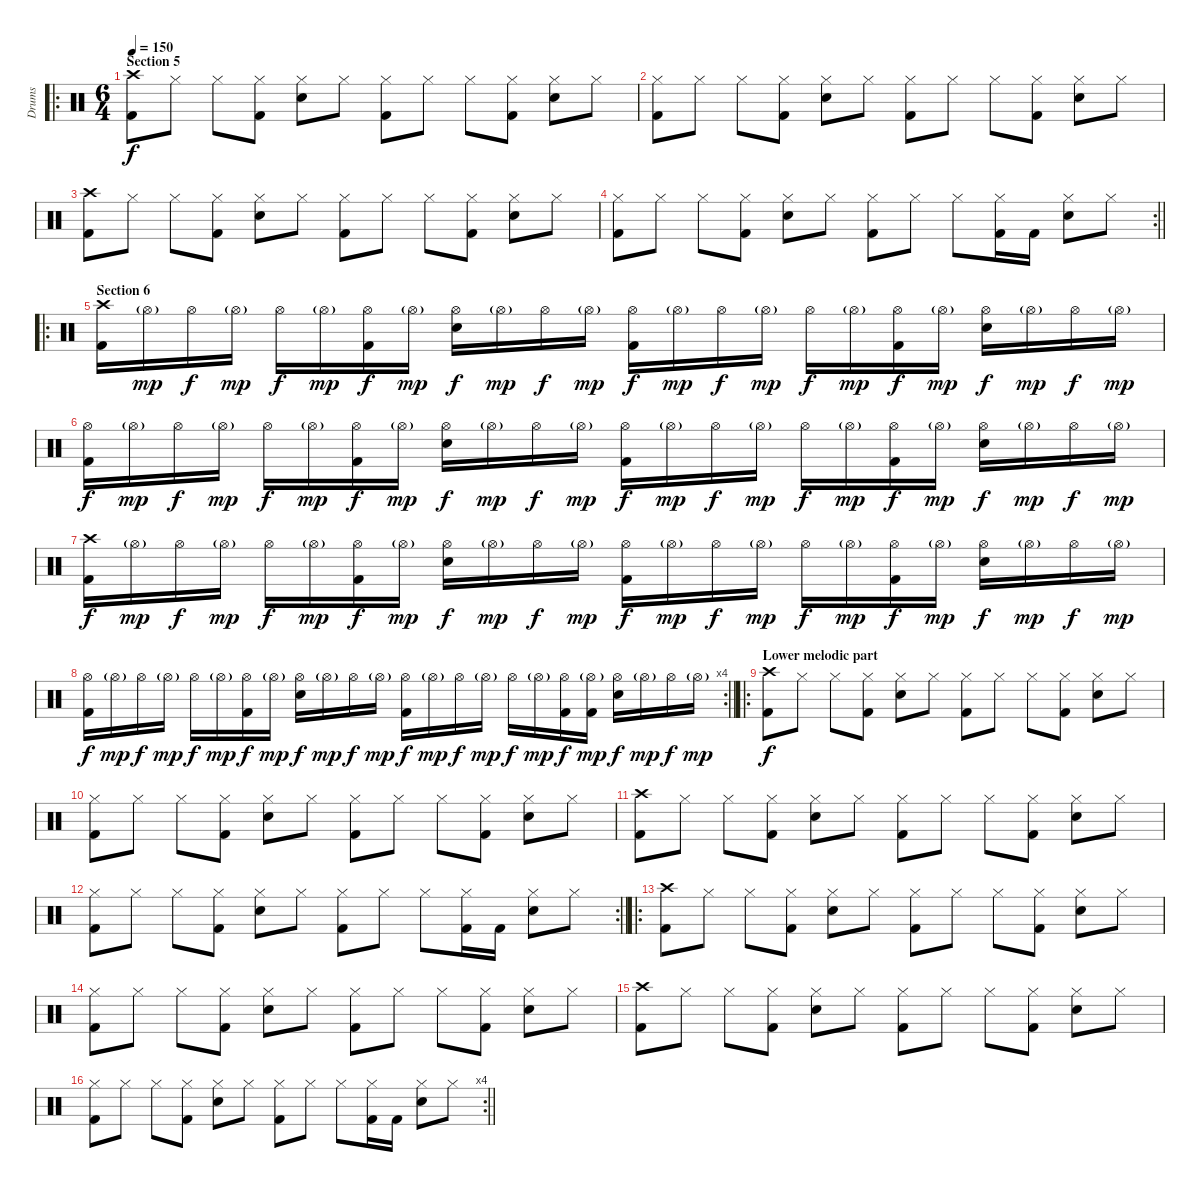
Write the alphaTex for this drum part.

\track ("Drums" "Drums") {instrument percussion}
\staff {score}
\articulation defaults
\ro
\ts (6 4)
\section ("" "Section 5")
\tempo 150
\clef neutral
\ks c
("Kick (hit) 2" "Crash high (hit)").8{dy f} "Hi-Hat (closed)".8 "Hi-Hat (closed)".8 ("Kick (hit) 2" "Hi-Hat (closed)").8 ("Snare (hit) 2" "Hi-Hat (closed)").8 "Hi-Hat (closed)".8 ("Kick (hit) 2" "Hi-Hat (closed)").8 "Hi-Hat (closed)".8 "Hi-Hat (closed)".8 ("Kick (hit) 2" "Hi-Hat (closed)").8 ("Snare (hit) 2" "Hi-Hat (closed)").8 "Hi-Hat (closed)".8 |
("Kick (hit) 2" "Hi-Hat (closed)").8 "Hi-Hat (closed)".8 "Hi-Hat (closed)".8 ("Kick (hit) 2" "Hi-Hat (closed)").8 ("Snare (hit) 2" "Hi-Hat (closed)").8 "Hi-Hat (closed)".8 ("Kick (hit) 2" "Hi-Hat (closed)").8 "Hi-Hat (closed)".8 "Hi-Hat (closed)".8 ("Kick (hit) 2" "Hi-Hat (closed)").8 ("Snare (hit) 2" "Hi-Hat (closed)").8 "Hi-Hat (closed)".8 |
("Kick (hit) 2" "Crash high (hit)").8 "Hi-Hat (closed)".8 "Hi-Hat (closed)".8 ("Kick (hit) 2" "Hi-Hat (closed)").8 ("Snare (hit) 2" "Hi-Hat (closed)").8 "Hi-Hat (closed)".8 ("Kick (hit) 2" "Hi-Hat (closed)").8 "Hi-Hat (closed)".8 "Hi-Hat (closed)".8 ("Kick (hit) 2" "Hi-Hat (closed)").8 ("Snare (hit) 2" "Hi-Hat (closed)").8 "Hi-Hat (closed)".8 |
\rc 2
\barLineRight lightlight
("Kick (hit) 2" "Hi-Hat (closed)").8 "Hi-Hat (closed)".8 "Hi-Hat (closed)".8 ("Kick (hit) 2" "Hi-Hat (closed)").8 ("Snare (hit) 2" "Hi-Hat (closed)").8 "Hi-Hat (closed)".8 ("Kick (hit) 2" "Hi-Hat (closed)").8 "Hi-Hat (closed)".8 "Hi-Hat (closed)".8 ("Kick (hit) 2" "Hi-Hat (closed)").16 "Kick (hit) 2".16 ("Snare (hit) 2" "Hi-Hat (closed)").8 "Hi-Hat (closed)".8 |
\ro
\section ("" "Section 6")
("Kick (hit) 2" "Crash high (hit)").16 "Hi-Hat (open)"{g}.16{dy mp} "Hi-Hat (open)".16{dy f} "Hi-Hat (open)"{g}.16{dy mp} "Hi-Hat (open)".16{dy f} "Hi-Hat (open)"{g}.16{dy mp} ("Kick (hit) 2" "Hi-Hat (open)").16{dy f} "Hi-Hat (open)"{g}.16{dy mp} ("Snare (hit) 2" "Hi-Hat (open)").16{dy f} "Hi-Hat (open)"{g}.16{dy mp} "Hi-Hat (open)".16{dy f} "Hi-Hat (open)"{g}.16{dy mp} ("Kick (hit) 2" "Hi-Hat (open)").16{dy f} "Hi-Hat (open)"{g}.16{dy mp} "Hi-Hat (open)".16{dy f} "Hi-Hat (open)"{g}.16{dy mp} "Hi-Hat (open)".16{dy f} "Hi-Hat (open)"{g}.16{dy mp} ("Kick (hit) 2" "Hi-Hat (open)").16{dy f} "Hi-Hat (open)"{g}.16{dy mp} ("Snare (hit) 2" "Hi-Hat (open)").16{dy f} "Hi-Hat (open)"{g}.16{dy mp} "Hi-Hat (open)".16{dy f} "Hi-Hat (open)"{g}.16{dy mp} |
("Kick (hit) 2" "Hi-Hat (open)").16{dy f} "Hi-Hat (open)"{g}.16{dy mp} "Hi-Hat (open)".16{dy f} "Hi-Hat (open)"{g}.16{dy mp} "Hi-Hat (open)".16{dy f} "Hi-Hat (open)"{g}.16{dy mp} ("Kick (hit) 2" "Hi-Hat (open)").16{dy f} "Hi-Hat (open)"{g}.16{dy mp} ("Snare (hit) 2" "Hi-Hat (open)").16{dy f} "Hi-Hat (open)"{g}.16{dy mp} "Hi-Hat (open)".16{dy f} "Hi-Hat (open)"{g}.16{dy mp} ("Kick (hit) 2" "Hi-Hat (open)").16{dy f} "Hi-Hat (open)"{g}.16{dy mp} "Hi-Hat (open)".16{dy f} "Hi-Hat (open)"{g}.16{dy mp} "Hi-Hat (open)".16{dy f} "Hi-Hat (open)"{g}.16{dy mp} ("Kick (hit) 2" "Hi-Hat (open)").16{dy f} "Hi-Hat (open)"{g}.16{dy mp} ("Snare (hit) 2" "Hi-Hat (open)").16{dy f} "Hi-Hat (open)"{g}.16{dy mp} "Hi-Hat (open)".16{dy f} "Hi-Hat (open)"{g}.16{dy mp} |
("Kick (hit) 2" "Crash high (hit)").16{dy f} "Hi-Hat (open)"{g}.16{dy mp} "Hi-Hat (open)".16{dy f} "Hi-Hat (open)"{g}.16{dy mp} "Hi-Hat (open)".16{dy f} "Hi-Hat (open)"{g}.16{dy mp} ("Kick (hit) 2" "Hi-Hat (open)").16{dy f} "Hi-Hat (open)"{g}.16{dy mp} ("Snare (hit) 2" "Hi-Hat (open)").16{dy f} "Hi-Hat (open)"{g}.16{dy mp} "Hi-Hat (open)".16{dy f} "Hi-Hat (open)"{g}.16{dy mp} ("Kick (hit) 2" "Hi-Hat (open)").16{dy f} "Hi-Hat (open)"{g}.16{dy mp} "Hi-Hat (open)".16{dy f} "Hi-Hat (open)"{g}.16{dy mp} "Hi-Hat (open)".16{dy f} "Hi-Hat (open)"{g}.16{dy mp} ("Kick (hit) 2" "Hi-Hat (open)").16{dy f} "Hi-Hat (open)"{g}.16{dy mp} ("Snare (hit) 2" "Hi-Hat (open)").16{dy f} "Hi-Hat (open)"{g}.16{dy mp} "Hi-Hat (open)".16{dy f} "Hi-Hat (open)"{g}.16{dy mp} |
\rc 4
\barLineRight lightlight
("Kick (hit) 2" "Hi-Hat (open)").16{dy f} "Hi-Hat (open)"{g}.16{dy mp} "Hi-Hat (open)".16{dy f} "Hi-Hat (open)"{g}.16{dy mp} "Hi-Hat (open)".16{dy f} "Hi-Hat (open)"{g}.16{dy mp} ("Kick (hit) 2" "Hi-Hat (open)").16{dy f} "Hi-Hat (open)"{g}.16{dy mp} ("Snare (hit) 2" "Hi-Hat (open)").16{dy f} "Hi-Hat (open)"{g}.16{dy mp} "Hi-Hat (open)".16{dy f} "Hi-Hat (open)"{g}.16{dy mp} ("Kick (hit) 2" "Hi-Hat (open)").16{dy f} "Hi-Hat (open)"{g}.16{dy mp} "Hi-Hat (open)".16{dy f} "Hi-Hat (open)"{g}.16{dy mp} "Hi-Hat (open)".16{dy f} "Hi-Hat (open)"{g}.16{dy mp} ("Kick (hit) 2" "Hi-Hat (open)").16{dy f} ("Kick (hit) 2" "Hi-Hat (open)"{g}).16{dy mp} ("Snare (hit) 2" "Hi-Hat (open)").16{dy f} "Hi-Hat (open)"{g}.16{dy mp} "Hi-Hat (open)".16{dy f} "Hi-Hat (open)"{g}.16{dy mp} |
\ro
\section ("" "Lower melodic part")
("Kick (hit) 2" "Crash high (hit)").8{dy f} "Hi-Hat (closed)".8 "Hi-Hat (closed)".8 ("Kick (hit) 2" "Hi-Hat (closed)").8 ("Snare (hit) 2" "Hi-Hat (closed)").8 "Hi-Hat (closed)".8 ("Kick (hit) 2" "Hi-Hat (closed)").8 "Hi-Hat (closed)".8 "Hi-Hat (closed)".8 ("Kick (hit) 2" "Hi-Hat (closed)").8 ("Snare (hit) 2" "Hi-Hat (closed)").8 "Hi-Hat (closed)".8 |
("Kick (hit) 2" "Hi-Hat (closed)").8 "Hi-Hat (closed)".8 "Hi-Hat (closed)".8 ("Kick (hit) 2" "Hi-Hat (closed)").8 ("Snare (hit) 2" "Hi-Hat (closed)").8 "Hi-Hat (closed)".8 ("Kick (hit) 2" "Hi-Hat (closed)").8 "Hi-Hat (closed)".8 "Hi-Hat (closed)".8 ("Kick (hit) 2" "Hi-Hat (closed)").8 ("Snare (hit) 2" "Hi-Hat (closed)").8 "Hi-Hat (closed)".8 |
("Kick (hit) 2" "Crash high (hit)").8 "Hi-Hat (closed)".8 "Hi-Hat (closed)".8 ("Kick (hit) 2" "Hi-Hat (closed)").8 ("Snare (hit) 2" "Hi-Hat (closed)").8 "Hi-Hat (closed)".8 ("Kick (hit) 2" "Hi-Hat (closed)").8 "Hi-Hat (closed)".8 "Hi-Hat (closed)".8 ("Kick (hit) 2" "Hi-Hat (closed)").8 ("Snare (hit) 2" "Hi-Hat (closed)").8 "Hi-Hat (closed)".8 |
\rc 2
\barLineRight lightlight
("Kick (hit) 2" "Hi-Hat (closed)").8 "Hi-Hat (closed)".8 "Hi-Hat (closed)".8 ("Kick (hit) 2" "Hi-Hat (closed)").8 ("Snare (hit) 2" "Hi-Hat (closed)").8 "Hi-Hat (closed)".8 ("Kick (hit) 2" "Hi-Hat (closed)").8 "Hi-Hat (closed)".8 "Hi-Hat (closed)".8 ("Kick (hit) 2" "Hi-Hat (closed)").16 "Kick (hit) 2".16 ("Snare (hit) 2" "Hi-Hat (closed)").8 "Hi-Hat (closed)".8 |
\ro
("Kick (hit) 2" "Crash high (hit)").8 "Hi-Hat (closed)".8 "Hi-Hat (closed)".8 ("Kick (hit) 2" "Hi-Hat (closed)").8 ("Snare (hit) 2" "Hi-Hat (closed)").8 "Hi-Hat (closed)".8 ("Kick (hit) 2" "Hi-Hat (closed)").8 "Hi-Hat (closed)".8 "Hi-Hat (closed)".8 ("Kick (hit) 2" "Hi-Hat (closed)").8 ("Snare (hit) 2" "Hi-Hat (closed)").8 "Hi-Hat (closed)".8 |
("Kick (hit) 2" "Hi-Hat (closed)").8 "Hi-Hat (closed)".8 "Hi-Hat (closed)".8 ("Kick (hit) 2" "Hi-Hat (closed)").8 ("Snare (hit) 2" "Hi-Hat (closed)").8 "Hi-Hat (closed)".8 ("Kick (hit) 2" "Hi-Hat (closed)").8 "Hi-Hat (closed)".8 "Hi-Hat (closed)".8 ("Kick (hit) 2" "Hi-Hat (closed)").8 ("Snare (hit) 2" "Hi-Hat (closed)").8 "Hi-Hat (closed)".8 |
("Kick (hit) 2" "Crash high (hit)").8 "Hi-Hat (closed)".8 "Hi-Hat (closed)".8 ("Kick (hit) 2" "Hi-Hat (closed)").8 ("Snare (hit) 2" "Hi-Hat (closed)").8 "Hi-Hat (closed)".8 ("Kick (hit) 2" "Hi-Hat (closed)").8 "Hi-Hat (closed)".8 "Hi-Hat (closed)".8 ("Kick (hit) 2" "Hi-Hat (closed)").8 ("Snare (hit) 2" "Hi-Hat (closed)").8 "Hi-Hat (closed)".8 |
\rc 4
\barLineRight lightlight
("Kick (hit) 2" "Hi-Hat (closed)").8 "Hi-Hat (closed)".8 "Hi-Hat (closed)".8 ("Kick (hit) 2" "Hi-Hat (closed)").8 ("Snare (hit) 2" "Hi-Hat (closed)").8 "Hi-Hat (closed)".8 ("Kick (hit) 2" "Hi-Hat (closed)").8 "Hi-Hat (closed)".8 "Hi-Hat (closed)".8 ("Kick (hit) 2" "Hi-Hat (closed)").16 "Kick (hit) 2".16 ("Snare (hit) 2" "Hi-Hat (closed)").8 "Hi-Hat (closed)".8
